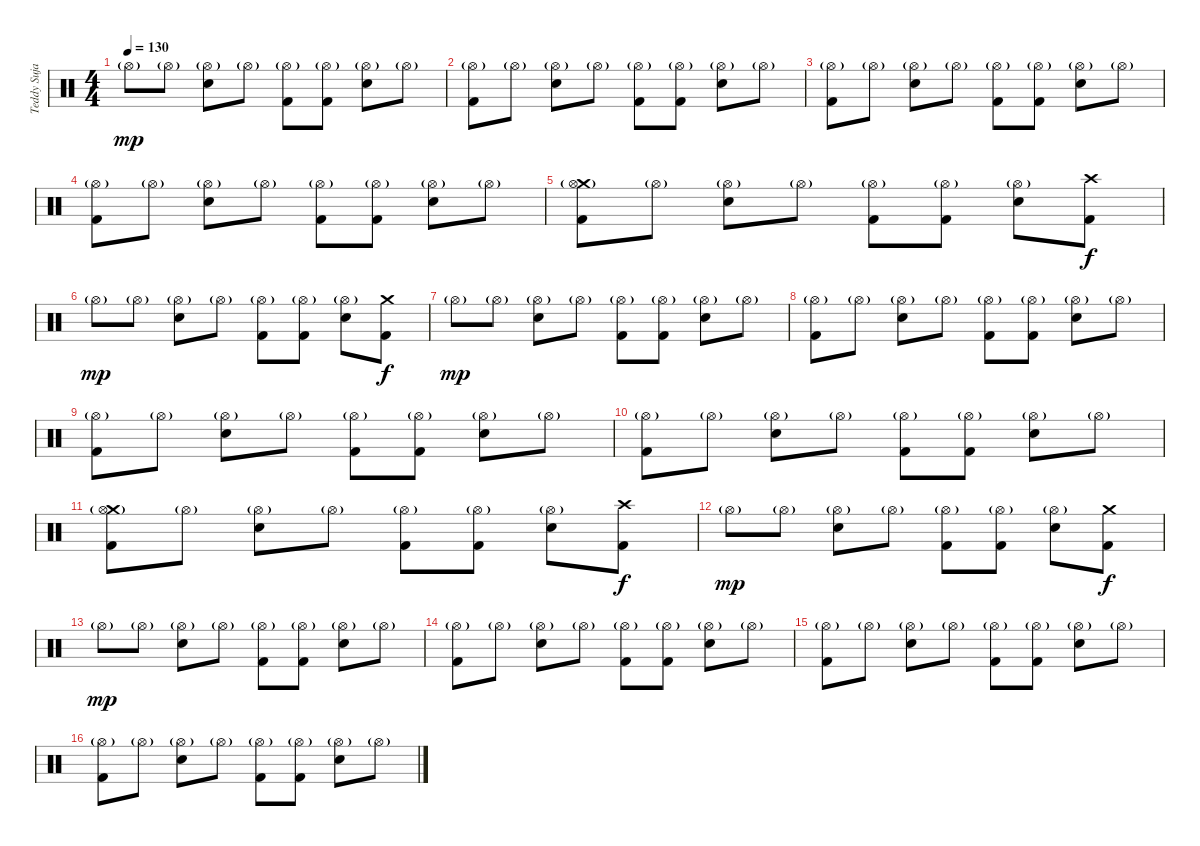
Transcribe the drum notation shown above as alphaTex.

\track ("Teddy Sujaya" "Teddy Suja") {instrument percussion}
\staff {score}
\articulation defaults
\ts (4 4)
\tempo 130
\clef neutral
\ks c "Hi-Hat (open)"{g}.8{dy mp} "Hi-Hat (open)"{g}.8
("Hi-Hat (open)"{g} "Electric Snare (hit)").8 "Hi-Hat (open)"{g}.8 ("Hi-Hat (open)"{g} "Kick (hit) 2").8 ("Hi-Hat (open)"{g} "Kick (hit) 2").8 ("Hi-Hat (open)"{g} "Electric Snare (hit)").8 "Hi-Hat (open)"{g}.8 |
("Hi-Hat (open)"{g} "Kick (hit) 2").8 "Hi-Hat (open)"{g}.8 ("Hi-Hat (open)"{g} "Electric Snare (hit)").8 "Hi-Hat (open)"{g}.8 ("Hi-Hat (open)"{g} "Kick (hit) 2").8 ("Hi-Hat (open)"{g} "Kick (hit) 2").8 ("Hi-Hat (open)"{g} "Electric Snare (hit)").8 "Hi-Hat (open)"{g}.8 |
("Hi-Hat (open)"{g} "Kick (hit) 2").8 "Hi-Hat (open)"{g}.8 ("Hi-Hat (open)"{g} "Electric Snare (hit)").8 "Hi-Hat (open)"{g}.8 ("Hi-Hat (open)"{g} "Kick (hit) 2").8 ("Hi-Hat (open)"{g} "Kick (hit) 2").8 ("Hi-Hat (open)"{g} "Electric Snare (hit)").8 "Hi-Hat (open)"{g}.8 |
("Hi-Hat (open)"{g} "Kick (hit) 2").8 "Hi-Hat (open)"{g}.8 ("Hi-Hat (open)"{g} "Electric Snare (hit)").8 "Hi-Hat (open)"{g}.8 ("Hi-Hat (open)"{g} "Kick (hit) 2").8 ("Hi-Hat (open)"{g} "Kick (hit) 2").8 ("Hi-Hat (open)"{g} "Electric Snare (hit)").8 "Hi-Hat (open)"{g}.8 |
("Crash medium (hit)" "Hi-Hat (open)"{g} "Kick (hit) 2").8 "Hi-Hat (open)"{g}.8 ("Hi-Hat (open)"{g} "Electric Snare (hit)").8 "Hi-Hat (open)"{g}.8 ("Hi-Hat (open)"{g} "Kick (hit) 2").8 ("Hi-Hat (open)"{g} "Kick (hit) 2").8 ("Hi-Hat (open)"{g} "Electric Snare (hit)").8 ("Crash high (hit)" "Kick (hit) 2").8{dy f} |
"Hi-Hat (open)"{g}.8{dy mp} "Hi-Hat (open)"{g}.8 ("Hi-Hat (open)"{g} "Electric Snare (hit)").8 "Hi-Hat (open)"{g}.8 ("Hi-Hat (open)"{g} "Kick (hit) 2").8 ("Hi-Hat (open)"{g} "Kick (hit) 2").8 ("Hi-Hat (open)"{g} "Electric Snare (hit)").8 ("Crash medium (hit)" "Kick (hit) 2").8{dy f} |
"Hi-Hat (open)"{g}.8{dy mp} "Hi-Hat (open)"{g}.8 ("Hi-Hat (open)"{g} "Electric Snare (hit)").8 "Hi-Hat (open)"{g}.8 ("Hi-Hat (open)"{g} "Kick (hit) 2").8 ("Hi-Hat (open)"{g} "Kick (hit) 2").8 ("Hi-Hat (open)"{g} "Electric Snare (hit)").8 "Hi-Hat (open)"{g}.8 |
("Hi-Hat (open)"{g} "Kick (hit) 2").8 "Hi-Hat (open)"{g}.8 ("Hi-Hat (open)"{g} "Electric Snare (hit)").8 "Hi-Hat (open)"{g}.8 ("Hi-Hat (open)"{g} "Kick (hit) 2").8 ("Hi-Hat (open)"{g} "Kick (hit) 2").8 ("Hi-Hat (open)"{g} "Electric Snare (hit)").8 "Hi-Hat (open)"{g}.8 |
("Hi-Hat (open)"{g} "Kick (hit) 2").8 "Hi-Hat (open)"{g}.8 ("Hi-Hat (open)"{g} "Electric Snare (hit)").8 "Hi-Hat (open)"{g}.8 ("Hi-Hat (open)"{g} "Kick (hit) 2").8 ("Hi-Hat (open)"{g} "Kick (hit) 2").8 ("Hi-Hat (open)"{g} "Electric Snare (hit)").8 "Hi-Hat (open)"{g}.8 |
("Hi-Hat (open)"{g} "Kick (hit) 2").8 "Hi-Hat (open)"{g}.8 ("Hi-Hat (open)"{g} "Electric Snare (hit)").8 "Hi-Hat (open)"{g}.8 ("Hi-Hat (open)"{g} "Kick (hit) 2").8 ("Hi-Hat (open)"{g} "Kick (hit) 2").8 ("Hi-Hat (open)"{g} "Electric Snare (hit)").8 "Hi-Hat (open)"{g}.8 |
("Crash medium (hit)" "Hi-Hat (open)"{g} "Kick (hit) 2").8 "Hi-Hat (open)"{g}.8 ("Hi-Hat (open)"{g} "Electric Snare (hit)").8 "Hi-Hat (open)"{g}.8 ("Hi-Hat (open)"{g} "Kick (hit) 2").8 ("Hi-Hat (open)"{g} "Kick (hit) 2").8 ("Hi-Hat (open)"{g} "Electric Snare (hit)").8 ("Crash high (hit)" "Kick (hit) 2").8{dy f} |
"Hi-Hat (open)"{g}.8{dy mp} "Hi-Hat (open)"{g}.8 ("Hi-Hat (open)"{g} "Electric Snare (hit)").8 "Hi-Hat (open)"{g}.8 ("Hi-Hat (open)"{g} "Kick (hit) 2").8 ("Hi-Hat (open)"{g} "Kick (hit) 2").8 ("Hi-Hat (open)"{g} "Electric Snare (hit)").8 ("Crash medium (hit)" "Kick (hit) 2").8{dy f} |
"Hi-Hat (open)"{g}.8{dy mp} "Hi-Hat (open)"{g}.8 ("Hi-Hat (open)"{g} "Electric Snare (hit)").8 "Hi-Hat (open)"{g}.8 ("Hi-Hat (open)"{g} "Kick (hit) 2").8 ("Hi-Hat (open)"{g} "Kick (hit) 2").8 ("Hi-Hat (open)"{g} "Electric Snare (hit)").8 "Hi-Hat (open)"{g}.8 |
("Hi-Hat (open)"{g} "Kick (hit) 2").8 "Hi-Hat (open)"{g}.8 ("Hi-Hat (open)"{g} "Electric Snare (hit)").8 "Hi-Hat (open)"{g}.8 ("Hi-Hat (open)"{g} "Kick (hit) 2").8 ("Hi-Hat (open)"{g} "Kick (hit) 2").8 ("Hi-Hat (open)"{g} "Electric Snare (hit)").8 "Hi-Hat (open)"{g}.8 |
("Hi-Hat (open)"{g} "Kick (hit) 2").8 "Hi-Hat (open)"{g}.8 ("Hi-Hat (open)"{g} "Electric Snare (hit)").8 "Hi-Hat (open)"{g}.8 ("Hi-Hat (open)"{g} "Kick (hit) 2").8 ("Hi-Hat (open)"{g} "Kick (hit) 2").8 ("Hi-Hat (open)"{g} "Electric Snare (hit)").8 "Hi-Hat (open)"{g}.8 |
("Hi-Hat (open)"{g} "Kick (hit) 2").8 "Hi-Hat (open)"{g}.8 ("Hi-Hat (open)"{g} "Electric Snare (hit)").8 "Hi-Hat (open)"{g}.8 ("Hi-Hat (open)"{g} "Kick (hit) 2").8 ("Hi-Hat (open)"{g} "Kick (hit) 2").8 ("Hi-Hat (open)"{g} "Electric Snare (hit)").8 "Hi-Hat (open)"{g}.8
